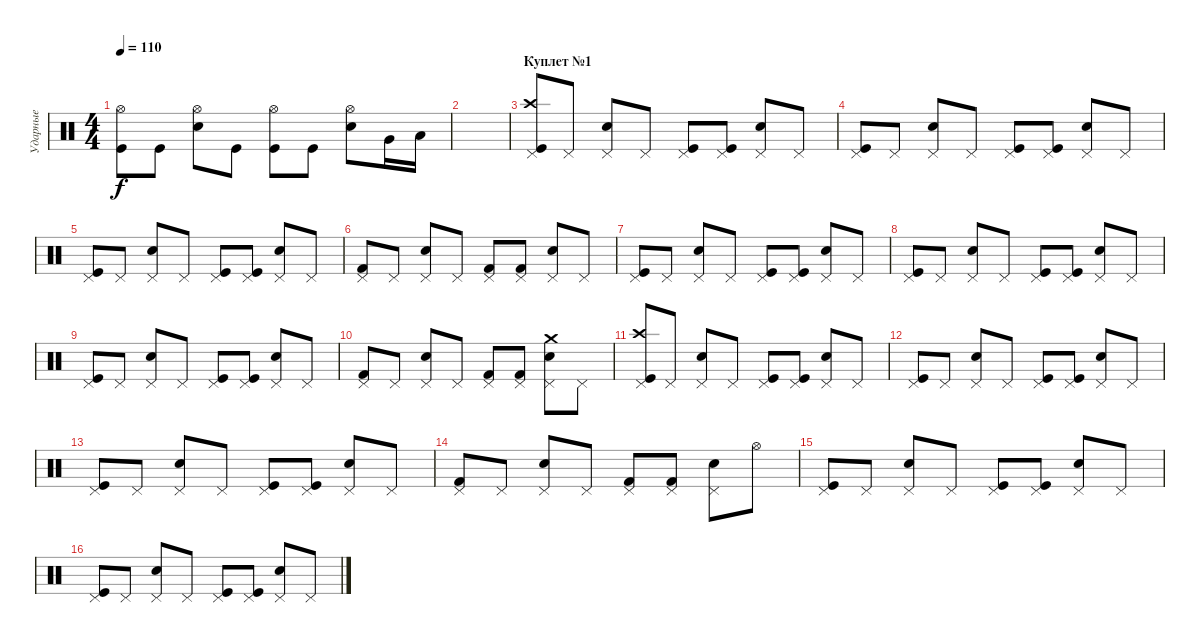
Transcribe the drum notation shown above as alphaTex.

\track ("Ударные" "Ударные") {instrument percussion}
\staff {score}
\articulation defaults
\ts (4 4)
\tempo 110
\clef neutral
\ks c
("Hi-Hat (open)" "Kick (hit)").8{dy f} "Kick (hit)".8 ("Hi-Hat (open)" "Electric Snare (hit)").8 "Kick (hit)".8 ("Hi-Hat (open)" "Kick (hit)").8 "Kick (hit)".8 ("Hi-Hat (open)" "Electric Snare (hit)").8 "Very Low Tom (hit)".16 "Low Floor Tom (hit)".16 |
|
\section ("" "Куплет №1")
("Crash high (hit)" "Pedal Hi-Hat (hit)" "Kick (hit)").8 "Pedal Hi-Hat (hit)".8 ("Pedal Hi-Hat (hit)" "Electric Snare (hit)").8 "Pedal Hi-Hat (hit)".8 ("Pedal Hi-Hat (hit)" "Kick (hit)").8 ("Pedal Hi-Hat (hit)" "Kick (hit)").8 ("Pedal Hi-Hat (hit)" "Electric Snare (hit)").8 "Pedal Hi-Hat (hit)".8 |
("Pedal Hi-Hat (hit)" "Kick (hit)").8 "Pedal Hi-Hat (hit)".8 ("Pedal Hi-Hat (hit)" "Electric Snare (hit)").8 "Pedal Hi-Hat (hit)".8 ("Pedal Hi-Hat (hit)" "Kick (hit)").8 ("Pedal Hi-Hat (hit)" "Kick (hit)").8 ("Pedal Hi-Hat (hit)" "Electric Snare (hit)").8 "Pedal Hi-Hat (hit)".8 |
("Pedal Hi-Hat (hit)" "Kick (hit)").8 "Pedal Hi-Hat (hit)".8 ("Pedal Hi-Hat (hit)" "Electric Snare (hit)").8 "Pedal Hi-Hat (hit)".8 ("Pedal Hi-Hat (hit)" "Kick (hit)").8 ("Pedal Hi-Hat (hit)" "Kick (hit)").8 ("Pedal Hi-Hat (hit)" "Electric Snare (hit)").8 "Pedal Hi-Hat (hit)".8 |
("Pedal Hi-Hat (hit)" "Kick (hit) 2").8 "Pedal Hi-Hat (hit)".8 ("Pedal Hi-Hat (hit)" "Electric Snare (hit)").8 "Pedal Hi-Hat (hit)".8 ("Pedal Hi-Hat (hit)" "Kick (hit) 2").8 ("Pedal Hi-Hat (hit)" "Kick (hit) 2").8 ("Pedal Hi-Hat (hit)" "Electric Snare (hit)").8 "Pedal Hi-Hat (hit)".8 |
("Pedal Hi-Hat (hit)" "Kick (hit)").8 "Pedal Hi-Hat (hit)".8 ("Pedal Hi-Hat (hit)" "Electric Snare (hit)").8 "Pedal Hi-Hat (hit)".8 ("Pedal Hi-Hat (hit)" "Kick (hit)").8 ("Pedal Hi-Hat (hit)" "Kick (hit)").8 ("Pedal Hi-Hat (hit)" "Electric Snare (hit)").8 "Pedal Hi-Hat (hit)".8 |
("Pedal Hi-Hat (hit)" "Kick (hit)").8 "Pedal Hi-Hat (hit)".8 ("Pedal Hi-Hat (hit)" "Electric Snare (hit)").8 "Pedal Hi-Hat (hit)".8 ("Pedal Hi-Hat (hit)" "Kick (hit)").8 ("Pedal Hi-Hat (hit)" "Kick (hit)").8 ("Pedal Hi-Hat (hit)" "Electric Snare (hit)").8 "Pedal Hi-Hat (hit)".8 |
("Pedal Hi-Hat (hit)" "Kick (hit)").8 "Pedal Hi-Hat (hit)".8 ("Pedal Hi-Hat (hit)" "Electric Snare (hit)").8 "Pedal Hi-Hat (hit)".8 ("Pedal Hi-Hat (hit)" "Kick (hit)").8 ("Pedal Hi-Hat (hit)" "Kick (hit)").8 ("Pedal Hi-Hat (hit)" "Electric Snare (hit)").8 "Pedal Hi-Hat (hit)".8 |
("Pedal Hi-Hat (hit)" "Kick (hit) 2").8 "Pedal Hi-Hat (hit)".8 ("Pedal Hi-Hat (hit)" "Electric Snare (hit)").8 "Pedal Hi-Hat (hit)".8 ("Pedal Hi-Hat (hit)" "Kick (hit) 2").8 ("Pedal Hi-Hat (hit)" "Kick (hit) 2").8 ("Crash medium (hit)" "Pedal Hi-Hat (hit)" "Electric Snare (hit)").8 "Pedal Hi-Hat (hit)".8 |
("Crash high (hit)" "Pedal Hi-Hat (hit)" "Kick (hit)").8 "Pedal Hi-Hat (hit)".8 ("Pedal Hi-Hat (hit)" "Electric Snare (hit)").8 "Pedal Hi-Hat (hit)".8 ("Pedal Hi-Hat (hit)" "Kick (hit)").8 ("Pedal Hi-Hat (hit)" "Kick (hit)").8 ("Pedal Hi-Hat (hit)" "Electric Snare (hit)").8 "Pedal Hi-Hat (hit)".8 |
("Pedal Hi-Hat (hit)" "Kick (hit)").8 "Pedal Hi-Hat (hit)".8 ("Pedal Hi-Hat (hit)" "Electric Snare (hit)").8 "Pedal Hi-Hat (hit)".8 ("Pedal Hi-Hat (hit)" "Kick (hit)").8 ("Pedal Hi-Hat (hit)" "Kick (hit)").8 ("Pedal Hi-Hat (hit)" "Electric Snare (hit)").8 "Pedal Hi-Hat (hit)".8 |
("Pedal Hi-Hat (hit)" "Kick (hit)").8 "Pedal Hi-Hat (hit)".8 ("Pedal Hi-Hat (hit)" "Electric Snare (hit)").8 "Pedal Hi-Hat (hit)".8 ("Pedal Hi-Hat (hit)" "Kick (hit)").8 ("Pedal Hi-Hat (hit)" "Kick (hit)").8 ("Pedal Hi-Hat (hit)" "Electric Snare (hit)").8 "Pedal Hi-Hat (hit)".8 |
("Pedal Hi-Hat (hit)" "Kick (hit) 2").8 "Pedal Hi-Hat (hit)".8 ("Pedal Hi-Hat (hit)" "Electric Snare (hit)").8 "Pedal Hi-Hat (hit)".8 ("Pedal Hi-Hat (hit)" "Kick (hit) 2").8 ("Pedal Hi-Hat (hit)" "Kick (hit) 2").8 ("Pedal Hi-Hat (hit)" "Electric Snare (hit)").8 "Hi-Hat (open)".8 |
("Pedal Hi-Hat (hit)" "Kick (hit)").8 "Pedal Hi-Hat (hit)".8 ("Pedal Hi-Hat (hit)" "Electric Snare (hit)").8 "Pedal Hi-Hat (hit)".8 ("Pedal Hi-Hat (hit)" "Kick (hit)").8 ("Pedal Hi-Hat (hit)" "Kick (hit)").8 ("Pedal Hi-Hat (hit)" "Electric Snare (hit)").8 "Pedal Hi-Hat (hit)".8 |
("Pedal Hi-Hat (hit)" "Kick (hit)").8 "Pedal Hi-Hat (hit)".8 ("Pedal Hi-Hat (hit)" "Electric Snare (hit)").8 "Pedal Hi-Hat (hit)".8 ("Pedal Hi-Hat (hit)" "Kick (hit)").8 ("Pedal Hi-Hat (hit)" "Kick (hit)").8 ("Pedal Hi-Hat (hit)" "Electric Snare (hit)").8 "Pedal Hi-Hat (hit)".8
